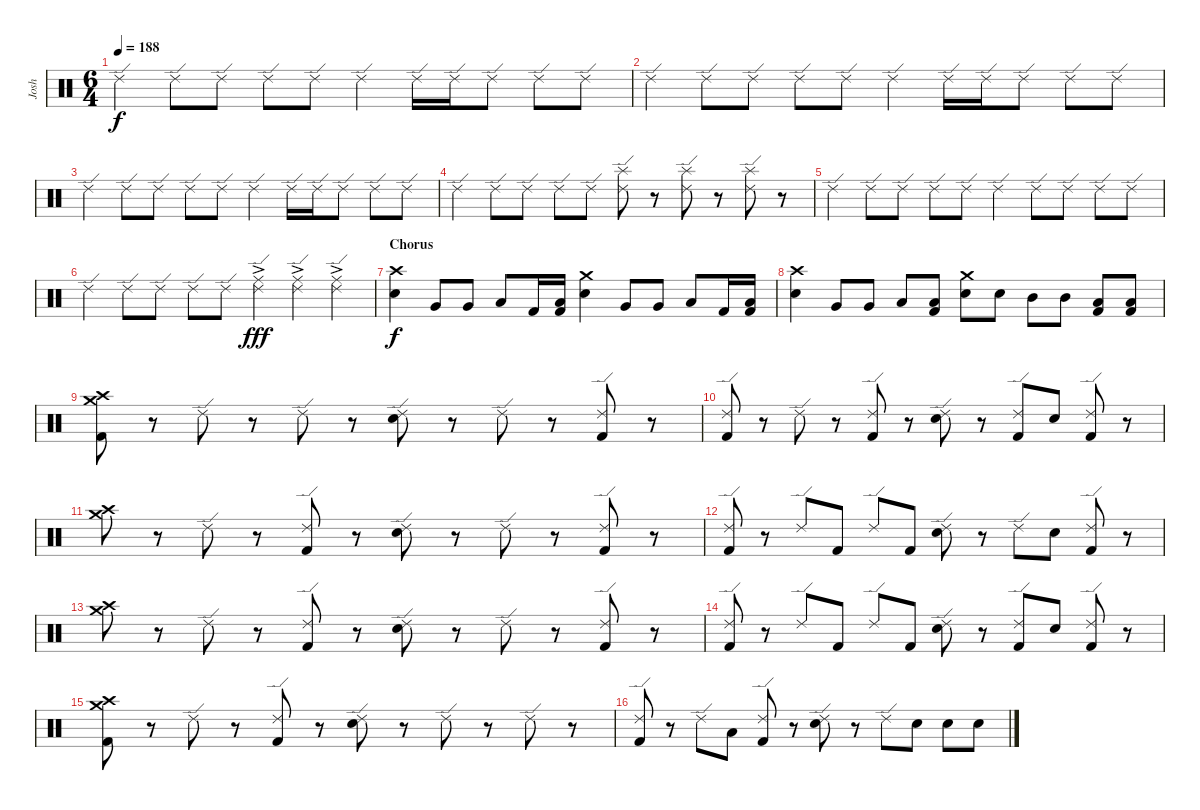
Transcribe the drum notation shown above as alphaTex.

\track ("Josh" "Josh") {instrument percussion}
\staff {score}
\articulation defaults
\ts (6 4)
\tempo 188
\clef neutral
\ks c "Ride (edge) 2".4{dy f} "Ride (edge) 2".8 "Ride (edge) 2".8 "Ride (edge) 2".8 "Ride (edge) 2".8 "Ride (edge) 2".4 "Ride (edge) 2".16 "Ride (edge) 2".16 "Ride (edge) 2".8 "Ride (edge) 2".8 "Ride (edge) 2".8
|
"Ride (edge) 2".4 "Ride (edge) 2".8 "Ride (edge) 2".8 "Ride (edge) 2".8 "Ride (edge) 2".8 "Ride (edge) 2".4 "Ride (edge) 2".16 "Ride (edge) 2".16 "Ride (edge) 2".8 "Ride (edge) 2".8 "Ride (edge) 2".8 |
"Ride (edge) 2".4 "Ride (edge) 2".8 "Ride (edge) 2".8 "Ride (edge) 2".8 "Ride (edge) 2".8 "Ride (edge) 2".4 "Ride (edge) 2".16 "Ride (edge) 2".16 "Ride (edge) 2".8 "Ride (edge) 2".8 "Ride (edge) 2".8 |
"Ride (edge) 2".4 "Ride (edge) 2".8 "Ride (edge) 2".8 "Ride (edge) 2".8 "Ride (edge) 2".8 ("Ride (edge) 2" "Splash (hit)").8 r.8 ("Ride (edge) 2" "Splash (hit)").8 r.8 ("Ride (edge) 2" "Splash (hit)").8 r.8 |
"Ride (edge) 2".4 "Ride (edge) 2".8 "Ride (edge) 2".8 "Ride (edge) 2".8 "Ride (edge) 2".8 "Ride (edge) 2".4 "Ride (edge) 2".8 "Ride (edge) 2".8 "Ride (edge) 2".8 "Ride (edge) 2".8 |
"Ride (edge) 2".4 "Ride (edge) 2".8 "Ride (edge) 2".8 "Ride (edge) 2".8 "Ride (edge) 2".8 ("Ride (middle)" "Ride (edge) 2"{ac}).4{dy fff} ("Ride (middle)" "Ride (edge) 2"{ac}).4 ("Ride (middle)" "Ride (edge) 2"{ac}).4 |
\section ("" "Chorus")
("Crash high (hit)" "Electric Snare (hit)").4{dy f} "Very Low Tom (hit)".8 "Very Low Tom (hit)".8 "Low Floor Tom (hit)".8 "Kick (hit) 2".16 ("Low Floor Tom (hit)" "Kick (hit) 2").16 ("Crash medium (hit)" "Electric Snare (hit)").4 "Very Low Tom (hit)".8 "Very Low Tom (hit)".8 "Low Floor Tom (hit)".8 "Kick (hit) 2".16 ("Low Floor Tom (hit)" "Kick (hit) 2").16 |
("Crash high (hit)" "Electric Snare (hit)").4 "Very Low Tom (hit)".8 "Very Low Tom (hit)".8 "Low Floor Tom (hit)".8 ("Low Floor Tom (hit)" "Kick (hit) 2").8 ("Crash medium (hit)" "Electric Snare (hit)").8 "Electric Snare (hit)".8 "Mid Tom (hit)".8 "Mid Tom (hit)".8 ("Low Tom (hit)" "Kick (hit) 2").8 ("Low Tom (hit)" "Kick (hit) 2").8 |
("Crash medium (hit)" "Crash high (hit)" "Kick (hit) 2").8 r.8 "Ride (edge) 2".8 r.8 "Ride (edge) 2".8 r.8 ("Ride (edge) 2" "Electric Snare (hit)").8 r.8 "Ride (edge) 2".8 r.8 ("Ride (edge) 2" "Kick (hit) 2").8 r.8 |
("Ride (edge) 2" "Kick (hit) 2").8 r.8 "Ride (edge) 2".8 r.8 ("Ride (edge) 2" "Kick (hit) 2").8 r.8 ("Ride (edge) 2" "Electric Snare (hit)").8 r.8 ("Ride (edge) 2" "Kick (hit) 2").8 "Electric Snare (hit)".8 ("Ride (edge) 2" "Kick (hit) 2").8 r.8 |
("Crash high (hit)" "Crash medium (hit)").8 r.8 "Ride (edge) 2".8 r.8 ("Ride (edge) 2" "Kick (hit) 2").8 r.8 ("Ride (edge) 2" "Electric Snare (hit)").8 r.8 "Ride (edge) 2".8 r.8 ("Ride (edge) 2" "Kick (hit) 2").8 r.8 |
("Ride (edge) 2" "Kick (hit) 2").8 r.8 "Ride (edge) 2".8 "Kick (hit) 2".8 "Ride (edge) 2".8 "Kick (hit) 2".8 ("Ride (edge) 2" "Electric Snare (hit)").8 r.8 "Ride (edge) 2".8 "Electric Snare (hit)".8 ("Ride (edge) 2" "Kick (hit) 2").8 r.8 |
("Crash medium (hit)" "Crash high (hit)").8 r.8 "Ride (edge) 2".8 r.8 ("Ride (edge) 2" "Kick (hit) 2").8 r.8 ("Ride (edge) 2" "Electric Snare (hit)").8 r.8 "Ride (edge) 2".8 r.8 ("Ride (edge) 2" "Kick (hit) 2").8 r.8 |
("Ride (edge) 2" "Kick (hit) 2").8 r.8 "Ride (edge) 2".8 "Kick (hit) 2".8 "Ride (edge) 2".8 "Kick (hit) 2".8 ("Ride (edge) 2" "Electric Snare (hit)").8 r.8 ("Ride (edge) 2" "Kick (hit) 2").8 "Electric Snare (hit)".8 ("Ride (edge) 2" "Kick (hit) 2").8 r.8 |
("Crash high (hit)" "Crash medium (hit)" "Kick (hit) 2").8 r.8 "Ride (edge) 2".8 r.8 ("Ride (edge) 2" "Kick (hit) 2").8 r.8 ("Ride (edge) 2" "Electric Snare (hit)").8 r.8 "Ride (edge) 2".8 r.8 "Ride (edge) 2".8 r.8 |
("Ride (edge) 2" "Kick (hit) 2").8 r.8 "Ride (edge) 2".8 "Low Tom (hit)".8 ("Ride (edge) 2" "Kick (hit) 2").8 r.8 ("Ride (edge) 2" "Electric Snare (hit)").8 r.8 "Ride (edge) 2".8 "Electric Snare (hit)".8 "Electric Snare (hit)".8 "Electric Snare (hit)".8
